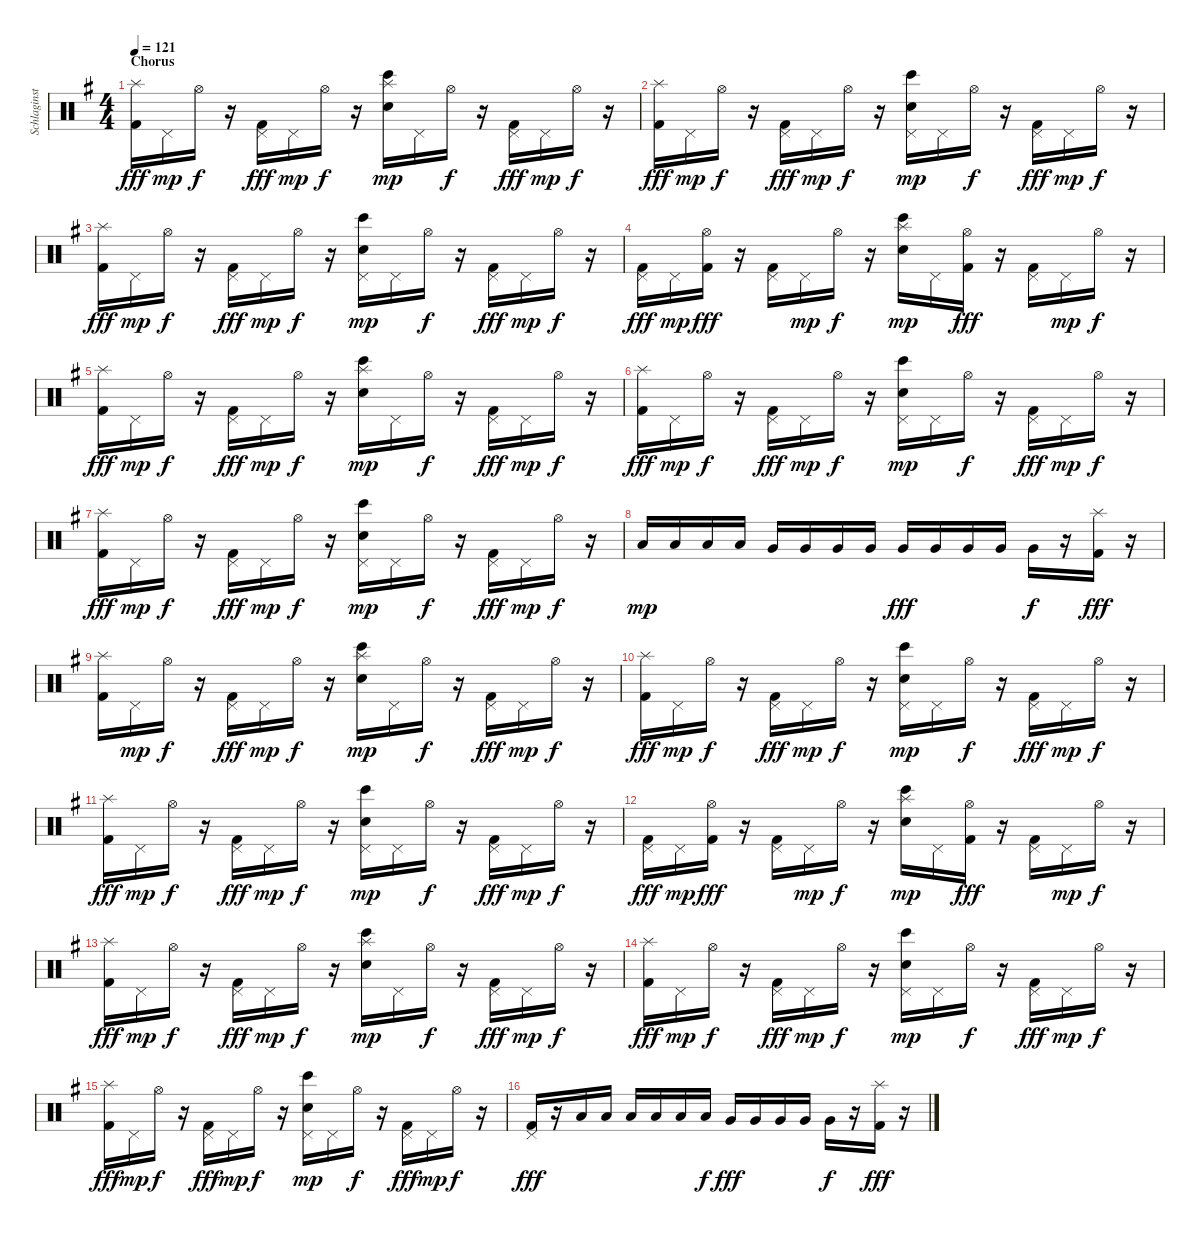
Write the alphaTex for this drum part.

\track ("Schlaginstrumente - Auswahl" "Schlaginst") {instrument percussion}
\staff {score}
\articulation defaults
\ts (4 4)
\section ("" "Chorus")
\tempo 121
\clef neutral
\ks g
("Splash (hit)" "Kick (hit) 2").16{dy fff} "Pedal Hi-Hat (hit)".16{dy mp} "Hi-Hat (open)".16{dy f} r.16 ("Pedal Hi-Hat (hit)" "Kick (hit) 2").16{dy fff} "Pedal Hi-Hat (hit)".16{dy mp} "Hi-Hat (open)".16{dy f} r.16 ("Bongo High (hit)" "Splash (hit)" "Electric Snare (hit)").16{dy mp} "Pedal Hi-Hat (hit)".16 "Hi-Hat (open)".16{dy f} r.16 ("Pedal Hi-Hat (hit)" "Kick (hit) 2").16{dy fff} "Pedal Hi-Hat (hit)".16{dy mp} "Hi-Hat (open)".16{dy f} r.16 |
("Splash (hit)" "Kick (hit) 2").16{dy fff} "Pedal Hi-Hat (hit)".16{dy mp} "Hi-Hat (open)".16{dy f} r.16 ("Pedal Hi-Hat (hit)" "Kick (hit) 2").16{dy fff} "Pedal Hi-Hat (hit)".16{dy mp} "Hi-Hat (open)".16{dy f} r.16 ("Bongo High (hit)" "Pedal Hi-Hat (hit)" "Electric Snare (hit)").16{dy mp} "Pedal Hi-Hat (hit)".16 "Hi-Hat (open)".16{dy f} r.16 ("Pedal Hi-Hat (hit)" "Kick (hit) 2").16{dy fff} "Pedal Hi-Hat (hit)".16{dy mp} "Hi-Hat (open)".16{dy f} r.16 |
("Splash (hit)" "Kick (hit) 2").16{dy fff} "Pedal Hi-Hat (hit)".16{dy mp} "Hi-Hat (open)".16{dy f} r.16 ("Pedal Hi-Hat (hit)" "Kick (hit) 2").16{dy fff} "Pedal Hi-Hat (hit)".16{dy mp} "Hi-Hat (open)".16{dy f} r.16 ("Bongo High (hit)" "Pedal Hi-Hat (hit)" "Electric Snare (hit)").16{dy mp} "Pedal Hi-Hat (hit)".16 "Hi-Hat (open)".16{dy f} r.16 ("Pedal Hi-Hat (hit)" "Kick (hit) 2").16{dy fff} "Pedal Hi-Hat (hit)".16{dy mp} "Hi-Hat (open)".16{dy f} r.16 |
("Pedal Hi-Hat (hit)" "Kick (hit) 2").16{dy fff} "Pedal Hi-Hat (hit)".16{dy mp} ("Hi-Hat (open)" "Kick (hit) 2").16{dy fff} r.16 ("Pedal Hi-Hat (hit)" "Kick (hit) 2").16 "Pedal Hi-Hat (hit)".16{dy mp} "Hi-Hat (open)".16{dy f} r.16 ("Bongo High (hit)" "Splash (hit)" "Electric Snare (hit)").16{dy mp} "Pedal Hi-Hat (hit)".16 ("Hi-Hat (open)" "Kick (hit) 2").16{dy fff} r.16 ("Pedal Hi-Hat (hit)" "Kick (hit) 2").16 "Pedal Hi-Hat (hit)".16{dy mp} "Hi-Hat (open)".16{dy f} r.16 |
("Splash (hit)" "Kick (hit) 2").16{dy fff} "Pedal Hi-Hat (hit)".16{dy mp} "Hi-Hat (open)".16{dy f} r.16 ("Pedal Hi-Hat (hit)" "Kick (hit) 2").16{dy fff} "Pedal Hi-Hat (hit)".16{dy mp} "Hi-Hat (open)".16{dy f} r.16 ("Bongo High (hit)" "Splash (hit)" "Electric Snare (hit)").16{dy mp} "Pedal Hi-Hat (hit)".16 "Hi-Hat (open)".16{dy f} r.16 ("Pedal Hi-Hat (hit)" "Kick (hit) 2").16{dy fff} "Pedal Hi-Hat (hit)".16{dy mp} "Hi-Hat (open)".16{dy f} r.16 |
("Splash (hit)" "Kick (hit) 2").16{dy fff} "Pedal Hi-Hat (hit)".16{dy mp} "Hi-Hat (open)".16{dy f} r.16 ("Pedal Hi-Hat (hit)" "Kick (hit) 2").16{dy fff} "Pedal Hi-Hat (hit)".16{dy mp} "Hi-Hat (open)".16{dy f} r.16 ("Bongo High (hit)" "Pedal Hi-Hat (hit)" "Electric Snare (hit)").16{dy mp} "Pedal Hi-Hat (hit)".16 "Hi-Hat (open)".16{dy f} r.16 ("Pedal Hi-Hat (hit)" "Kick (hit) 2").16{dy fff} "Pedal Hi-Hat (hit)".16{dy mp} "Hi-Hat (open)".16{dy f} r.16 |
("Splash (hit)" "Kick (hit) 2").16{dy fff} "Pedal Hi-Hat (hit)".16{dy mp} "Hi-Hat (open)".16{dy f} r.16 ("Pedal Hi-Hat (hit)" "Kick (hit) 2").16{dy fff} "Pedal Hi-Hat (hit)".16{dy mp} "Hi-Hat (open)".16{dy f} r.16 ("Bongo High (hit)" "Pedal Hi-Hat (hit)" "Electric Snare (hit)").16{dy mp} "Pedal Hi-Hat (hit)".16 "Hi-Hat (open)".16{dy f} r.16 ("Pedal Hi-Hat (hit)" "Kick (hit) 2").16{dy fff} "Pedal Hi-Hat (hit)".16{dy mp} "Hi-Hat (open)".16{dy f} r.16 |
"Low Tom (hit)".16{dy mp} "Low Tom (hit)".16 "Low Tom (hit)".16 "Low Tom (hit)".16 "Very Low Tom (hit)".16 "Very Low Tom (hit)".16 "Very Low Tom (hit)".16 "Very Low Tom (hit)".16 "Very Low Tom (hit)".16{dy fff} "Very Low Tom (hit)".16 "Very Low Tom (hit)".16 "Very Low Tom (hit)".16 "Very Low Tom (hit)".16{dy f} r.16 ("Splash (hit)" "Kick (hit) 2").16{dy fff} r.16 |
("Splash (hit)" "Kick (hit) 2").16 "Pedal Hi-Hat (hit)".16{dy mp} "Hi-Hat (open)".16{dy f} r.16 ("Pedal Hi-Hat (hit)" "Kick (hit) 2").16{dy fff} "Pedal Hi-Hat (hit)".16{dy mp} "Hi-Hat (open)".16{dy f} r.16 ("Bongo High (hit)" "Splash (hit)" "Electric Snare (hit)").16{dy mp} "Pedal Hi-Hat (hit)".16 "Hi-Hat (open)".16{dy f} r.16 ("Pedal Hi-Hat (hit)" "Kick (hit) 2").16{dy fff} "Pedal Hi-Hat (hit)".16{dy mp} "Hi-Hat (open)".16{dy f} r.16 |
("Splash (hit)" "Kick (hit) 2").16{dy fff} "Pedal Hi-Hat (hit)".16{dy mp} "Hi-Hat (open)".16{dy f} r.16 ("Pedal Hi-Hat (hit)" "Kick (hit) 2").16{dy fff} "Pedal Hi-Hat (hit)".16{dy mp} "Hi-Hat (open)".16{dy f} r.16 ("Bongo High (hit)" "Pedal Hi-Hat (hit)" "Electric Snare (hit)").16{dy mp} "Pedal Hi-Hat (hit)".16 "Hi-Hat (open)".16{dy f} r.16 ("Pedal Hi-Hat (hit)" "Kick (hit) 2").16{dy fff} "Pedal Hi-Hat (hit)".16{dy mp} "Hi-Hat (open)".16{dy f} r.16 |
("Splash (hit)" "Kick (hit) 2").16{dy fff} "Pedal Hi-Hat (hit)".16{dy mp} "Hi-Hat (open)".16{dy f} r.16 ("Pedal Hi-Hat (hit)" "Kick (hit) 2").16{dy fff} "Pedal Hi-Hat (hit)".16{dy mp} "Hi-Hat (open)".16{dy f} r.16 ("Bongo High (hit)" "Pedal Hi-Hat (hit)" "Electric Snare (hit)").16{dy mp} "Pedal Hi-Hat (hit)".16 "Hi-Hat (open)".16{dy f} r.16 ("Pedal Hi-Hat (hit)" "Kick (hit) 2").16{dy fff} "Pedal Hi-Hat (hit)".16{dy mp} "Hi-Hat (open)".16{dy f} r.16 |
("Pedal Hi-Hat (hit)" "Kick (hit) 2").16{dy fff} "Pedal Hi-Hat (hit)".16{dy mp} ("Hi-Hat (open)" "Kick (hit) 2").16{dy fff} r.16 ("Pedal Hi-Hat (hit)" "Kick (hit) 2").16 "Pedal Hi-Hat (hit)".16{dy mp} "Hi-Hat (open)".16{dy f} r.16 ("Bongo High (hit)" "Splash (hit)" "Electric Snare (hit)").16{dy mp} "Pedal Hi-Hat (hit)".16 ("Hi-Hat (open)" "Kick (hit) 2").16{dy fff} r.16 ("Pedal Hi-Hat (hit)" "Kick (hit) 2").16 "Pedal Hi-Hat (hit)".16{dy mp} "Hi-Hat (open)".16{dy f} r.16 |
("Splash (hit)" "Kick (hit) 2").16{dy fff} "Pedal Hi-Hat (hit)".16{dy mp} "Hi-Hat (open)".16{dy f} r.16 ("Pedal Hi-Hat (hit)" "Kick (hit) 2").16{dy fff} "Pedal Hi-Hat (hit)".16{dy mp} "Hi-Hat (open)".16{dy f} r.16 ("Bongo High (hit)" "Splash (hit)" "Electric Snare (hit)").16{dy mp} "Pedal Hi-Hat (hit)".16 "Hi-Hat (open)".16{dy f} r.16 ("Pedal Hi-Hat (hit)" "Kick (hit) 2").16{dy fff} "Pedal Hi-Hat (hit)".16{dy mp} "Hi-Hat (open)".16{dy f} r.16 |
("Splash (hit)" "Kick (hit) 2").16{dy fff} "Pedal Hi-Hat (hit)".16{dy mp} "Hi-Hat (open)".16{dy f} r.16 ("Pedal Hi-Hat (hit)" "Kick (hit) 2").16{dy fff} "Pedal Hi-Hat (hit)".16{dy mp} "Hi-Hat (open)".16{dy f} r.16 ("Bongo High (hit)" "Pedal Hi-Hat (hit)" "Electric Snare (hit)").16{dy mp} "Pedal Hi-Hat (hit)".16 "Hi-Hat (open)".16{dy f} r.16 ("Pedal Hi-Hat (hit)" "Kick (hit) 2").16{dy fff} "Pedal Hi-Hat (hit)".16{dy mp} "Hi-Hat (open)".16{dy f} r.16 |
("Splash (hit)" "Kick (hit) 2").16{dy fff} "Pedal Hi-Hat (hit)".16{dy mp} "Hi-Hat (open)".16{dy f} r.16 ("Pedal Hi-Hat (hit)" "Kick (hit) 2").16{dy fff} "Pedal Hi-Hat (hit)".16{dy mp} "Hi-Hat (open)".16{dy f} r.16 ("Bongo High (hit)" "Pedal Hi-Hat (hit)" "Electric Snare (hit)").16{dy mp} "Pedal Hi-Hat (hit)".16 "Hi-Hat (open)".16{dy f} r.16 ("Pedal Hi-Hat (hit)" "Kick (hit) 2").16{dy fff} "Pedal Hi-Hat (hit)".16{dy mp} "Hi-Hat (open)".16{dy f} r.16 |
("Pedal Hi-Hat (hit)" "Kick (hit) 2").16{dy fff} r.16 "Low Tom (hit)".16 "Low Tom (hit)".16 "Low Tom (hit)".16 "Low Tom (hit)".16 "Low Tom (hit)".16 "Low Tom (hit)".16{dy f} "Very Low Tom (hit)".16{dy fff} "Very Low Tom (hit)".16 "Very Low Tom (hit)".16 "Very Low Tom (hit)".16 "Very Low Tom (hit)".16{dy f} r.16 ("Splash (hit)" "Kick (hit) 2").16{dy fff} r.16
